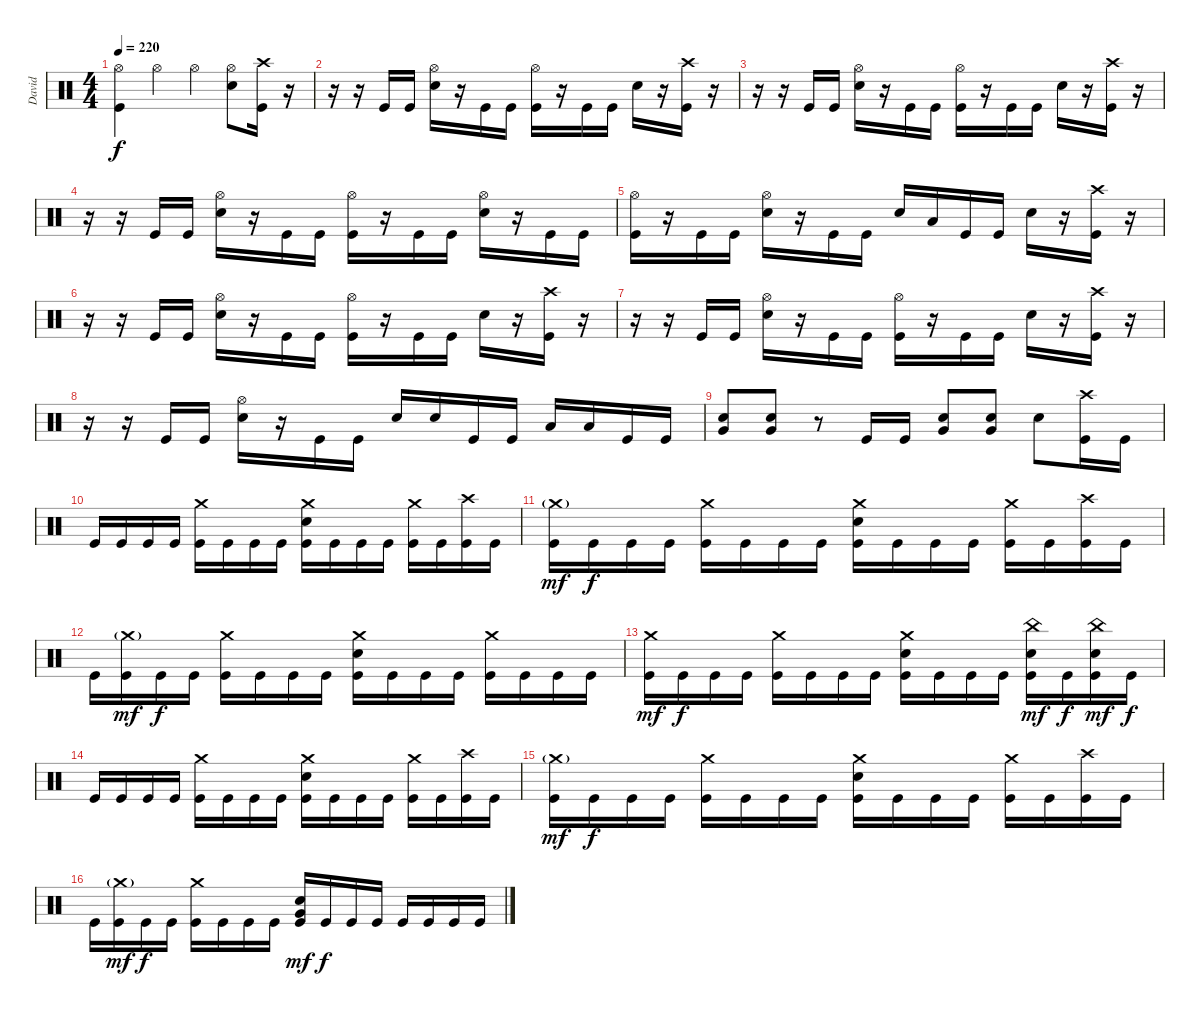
\track ("David" "David") {instrument percussion}
\staff {score}
\articulation defaults
\ts (4 4)
\tempo 220
\clef neutral
\ks c
("Hi-Hat (open)" "Kick (hit)").4{dy f} "Hi-Hat (open)".4 "Hi-Hat (open)".4 ("Hi-Hat (open)" "Electric Snare (hit)").8 ("Crash high (hit)" "Kick (hit)").16 r.16 |
r.16 r.16 "Kick (hit)".16 "Kick (hit)".16 ("Hi-Hat (open)" "Electric Snare (hit)").16 r.16 "Kick (hit)".16 "Kick (hit)".16 ("Hi-Hat (open)" "Kick (hit)").16 r.16 "Kick (hit)".16 "Kick (hit)".16 "Electric Snare (hit)".16 r.16 ("Crash high (hit)" "Kick (hit)").16 r.16 |
r.16 r.16 "Kick (hit)".16 "Kick (hit)".16 ("Hi-Hat (open)" "Electric Snare (hit)").16 r.16 "Kick (hit)".16 "Kick (hit)".16 ("Hi-Hat (open)" "Kick (hit)").16 r.16 "Kick (hit)".16 "Kick (hit)".16 "Electric Snare (hit)".16 r.16 ("Crash high (hit)" "Kick (hit)").16 r.16 |
r.16 r.16 "Kick (hit)".16 "Kick (hit)".16 ("Hi-Hat (open)" "Electric Snare (hit)").16 r.16 "Kick (hit)".16 "Kick (hit)".16 ("Hi-Hat (open)" "Kick (hit)").16 r.16 "Kick (hit)".16 "Kick (hit)".16 ("Hi-Hat (open)" "Electric Snare (hit)").16 r.16 "Kick (hit)".16 "Kick (hit)".16 |
("Hi-Hat (open)" "Kick (hit)").16 r.16 "Kick (hit)".16 "Kick (hit)".16 ("Hi-Hat (open)" "Electric Snare (hit)").16 r.16 "Kick (hit)".16 "Kick (hit)".16 "Electric Snare (hit)".16 "Low Tom (hit)".16 "Kick (hit)".16 "Kick (hit)".16 "Electric Snare (hit)".16 r.16 ("Crash high (hit)" "Kick (hit)").16 r.16 |
r.16 r.16 "Kick (hit)".16 "Kick (hit)".16 ("Hi-Hat (open)" "Electric Snare (hit)").16 r.16 "Kick (hit)".16 "Kick (hit)".16 ("Hi-Hat (open)" "Kick (hit)").16 r.16 "Kick (hit)".16 "Kick (hit)".16 "Electric Snare (hit)".16 r.16 ("Crash high (hit)" "Kick (hit)").16 r.16 |
r.16 r.16 "Kick (hit)".16 "Kick (hit)".16 ("Hi-Hat (open)" "Electric Snare (hit)").16 r.16 "Kick (hit)".16 "Kick (hit)".16 ("Hi-Hat (open)" "Kick (hit)").16 r.16 "Kick (hit)".16 "Kick (hit)".16 "Electric Snare (hit)".16 r.16 ("Crash high (hit)" "Kick (hit)").16 r.16 |
r.16 r.16 "Kick (hit)".16 "Kick (hit)".16 ("Hi-Hat (open)" "Electric Snare (hit)").16 r.16 "Kick (hit)".16 "Kick (hit)".16 "Electric Snare (hit)".16 "Electric Snare (hit)".16 "Kick (hit)".16 "Kick (hit)".16 "Low Tom (hit)".16 "Low Tom (hit)".16 "Kick (hit)".16 "Kick (hit)".16 |
("Very Low Tom (hit)" "Electric Snare (hit)").8 ("Very Low Tom (hit)" "Electric Snare (hit)").8 r.8 "Kick (hit)".16 "Kick (hit)".16 ("Very Low Tom (hit)" "Electric Snare (hit)").8 ("Very Low Tom (hit)" "Electric Snare (hit)").8 "Electric Snare (hit)".8 ("Crash high (hit)" "Kick (hit)").16 "Kick (hit)".16 |
"Kick (hit)".16 "Kick (hit)".16 "Kick (hit)".16 "Kick (hit)".16 ("Crash medium (hit)" "Kick (hit)").16 "Kick (hit)".16 "Kick (hit)".16 "Kick (hit)".16 ("Crash medium (hit)" "Electric Snare (hit)" "Kick (hit)").16 "Kick (hit)".16 "Kick (hit)".16 "Kick (hit)".16 ("Crash medium (hit)" "Kick (hit)").16 "Kick (hit)".16 ("Crash high (hit)" "Kick (hit)").16 "Kick (hit)".16 |
("Crash medium (hit)"{g} "Kick (hit)").16{dy mf} "Kick (hit)".16{dy f} "Kick (hit)".16 "Kick (hit)".16 ("Crash medium (hit)" "Kick (hit)").16 "Kick (hit)".16 "Kick (hit)".16 "Kick (hit)".16 ("Crash medium (hit)" "Electric Snare (hit)" "Kick (hit)").16 "Kick (hit)".16 "Kick (hit)".16 "Kick (hit)".16 ("Crash medium (hit)" "Kick (hit)").16 "Kick (hit)".16 ("Crash high (hit)" "Kick (hit)").16 "Kick (hit)".16 |
"Kick (hit)".16 ("Crash medium (hit)"{g} "Kick (hit)").16{dy mf} "Kick (hit)".16{dy f} "Kick (hit)".16 ("Crash medium (hit)" "Kick (hit)").16 "Kick (hit)".16 "Kick (hit)".16 "Kick (hit)".16 ("Crash medium (hit)" "Electric Snare (hit)" "Kick (hit)").16 "Kick (hit)".16 "Kick (hit)".16 "Kick (hit)".16 ("Crash medium (hit)" "Kick (hit)").16 "Kick (hit)".16 "Kick (hit)".16 "Kick (hit)".16 |
("Crash medium (hit)" "Kick (hit)").16{dy mf} "Kick (hit)".16{dy f} "Kick (hit)".16 "Kick (hit)".16 ("Crash medium (hit)" "Kick (hit)").16 "Kick (hit)".16 "Kick (hit)".16 "Kick (hit)".16 ("Crash medium (hit)" "Electric Snare (hit)" "Kick (hit)").16 "Kick (hit)".16 "Kick (hit)".16 "Kick (hit)".16 ("China (hit)" "Electric Snare (hit)" "Kick (hit)").16{dy mf} "Kick (hit)".16{dy f} ("China (hit)" "Electric Snare (hit)" "Kick (hit)").16{dy mf} "Kick (hit)".16{dy f} |
"Kick (hit)".16 "Kick (hit)".16 "Kick (hit)".16 "Kick (hit)".16 ("Crash medium (hit)" "Kick (hit)").16 "Kick (hit)".16 "Kick (hit)".16 "Kick (hit)".16 ("Crash medium (hit)" "Electric Snare (hit)" "Kick (hit)").16 "Kick (hit)".16 "Kick (hit)".16 "Kick (hit)".16 ("Crash medium (hit)" "Kick (hit)").16 "Kick (hit)".16 ("Crash high (hit)" "Kick (hit)").16 "Kick (hit)".16 |
("Crash medium (hit)"{g} "Kick (hit)").16{dy mf} "Kick (hit)".16{dy f} "Kick (hit)".16 "Kick (hit)".16 ("Crash medium (hit)" "Kick (hit)").16 "Kick (hit)".16 "Kick (hit)".16 "Kick (hit)".16 ("Crash medium (hit)" "Electric Snare (hit)" "Kick (hit)").16 "Kick (hit)".16 "Kick (hit)".16 "Kick (hit)".16 ("Crash medium (hit)" "Kick (hit)").16 "Kick (hit)".16 ("Crash high (hit)" "Kick (hit)").16 "Kick (hit)".16 |
"Kick (hit)".16 ("Crash medium (hit)"{g} "Kick (hit)").16{dy mf} "Kick (hit)".16{dy f} "Kick (hit)".16 ("Crash medium (hit)" "Kick (hit)").16 "Kick (hit)".16 "Kick (hit)".16 "Kick (hit)".16 ("Very Low Tom (hit)" "Electric Snare (hit)" "Kick (hit)").16{dy mf} "Kick (hit)".16{dy f} "Kick (hit)".16 "Kick (hit)".16 "Kick (hit)".16 "Kick (hit)".16 "Kick (hit)".16 "Kick (hit)".16
